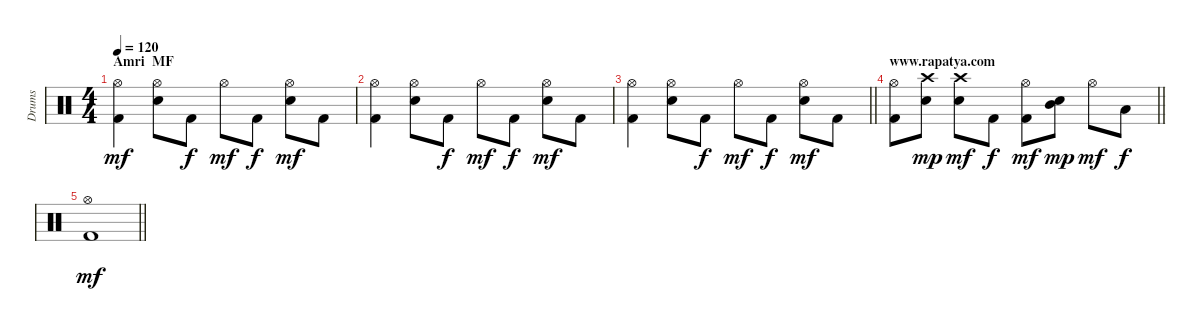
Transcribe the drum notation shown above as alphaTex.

\track ("Drums" "Drums") {instrument percussion}
\staff {score}
\articulation defaults
\ts (4 4)
\section ("" "Amri  MF")
\tempo 120
\clef neutral
\ks c
("Kick (hit) 2" "Hi-Hat (open)").4{dy mf} ("Hi-Hat (open)" "Electric Snare (hit)").8 "Kick (hit) 2".8{dy f} "Hi-Hat (open)".8{dy mf} "Kick (hit) 2".8{dy f} ("Electric Snare (hit)" "Hi-Hat (open)").8{dy mf} "Kick (hit) 2".8 |
("Kick (hit) 2" "Hi-Hat (open)").4 ("Hi-Hat (open)" "Electric Snare (hit)").8 "Kick (hit) 2".8{dy f} "Hi-Hat (open)".8{dy mf} "Kick (hit) 2".8{dy f} ("Electric Snare (hit)" "Hi-Hat (open)").8{dy mf} "Kick (hit) 2".8 |
\barLineRight lightlight
("Kick (hit) 2" "Hi-Hat (open)").4 ("Hi-Hat (open)" "Electric Snare (hit)").8 "Kick (hit) 2".8{dy f} "Hi-Hat (open)".8{dy mf} "Kick (hit) 2".8{dy f} ("Electric Snare (hit)" "Hi-Hat (open)").8{dy mf} "Kick (hit) 2".8 |
\section ("" "www.rapatya.com")
\barLineRight lightlight
("Kick (hit) 2" "Hi-Hat (open)").8 ("Electric Snare (hit)" "Crash high (hit)").8{dy mp} ("Electric Snare (hit)" "Crash high (hit)").8{dy mf} "Kick (hit) 2".8{dy f} ("Kick (hit) 2" "Hi-Hat (open)").8{dy mf} ("Electric Snare (hit)" "Mid Tom (hit)").8{dy mp} "Hi-Hat (open)".8{dy mf} "Low Tom (hit)".8{dy f} |
\barLineRight lightlight
("Kick (hit) 2" "Hi-Hat (open)").1{dy mf}
